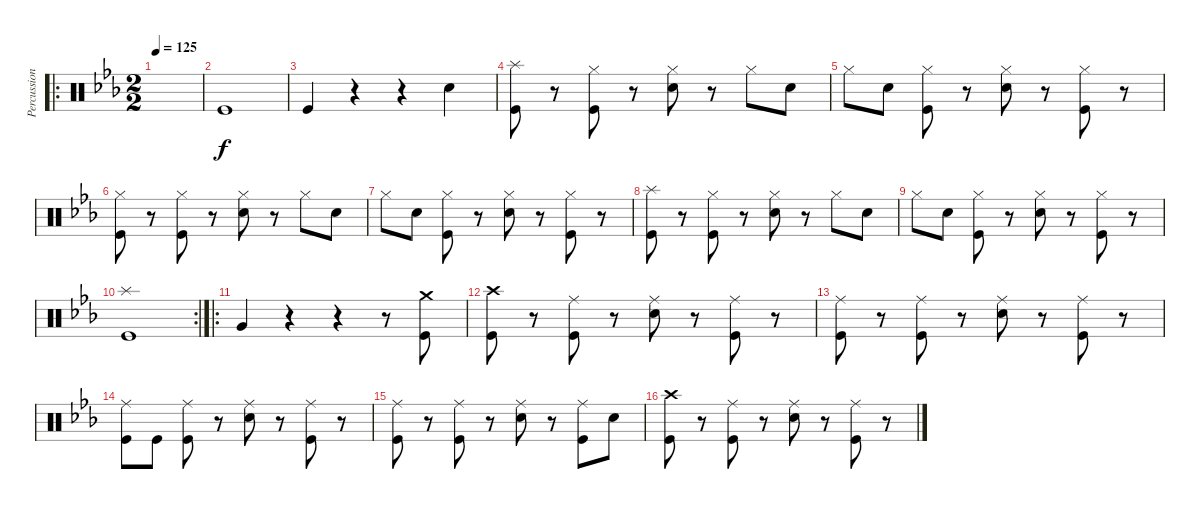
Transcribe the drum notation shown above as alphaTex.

\track ("Percussion" "Percussion") {instrument percussion}
\staff {score}
\articulation defaults
\ro
\ts (2 2)
\tempo 125
\clef neutral
\ks cminor
|
"Kick (hit)".1 |
"Kick (hit)".4 r.4 r.4 "Snare (hit) 2".4 |
("Splash (hit)" "Kick (hit)").8 r.8 ("Hi-Hat (closed)" "Kick (hit)").8 r.8 ("Hi-Hat (closed)" "Snare (hit) 2").8 r.8 "Hi-Hat (closed)".8 "Snare (hit) 2".8 |
"Hi-Hat (closed)".8 "Snare (hit) 2".8 ("Hi-Hat (closed)" "Kick (hit)").8 r.8 ("Hi-Hat (closed)" "Snare (hit) 2").8 r.8 ("Hi-Hat (closed)" "Kick (hit)").8 r.8 |
("Hi-Hat (closed)" "Kick (hit)").8 r.8 ("Hi-Hat (closed)" "Kick (hit)").8 r.8 ("Hi-Hat (closed)" "Snare (hit) 2").8 r.8 "Hi-Hat (closed)".8 "Snare (hit) 2".8 |
"Hi-Hat (closed)".8 "Snare (hit) 2".8 ("Hi-Hat (closed)" "Kick (hit)").8 r.8 ("Hi-Hat (closed)" "Snare (hit) 2").8 r.8 ("Hi-Hat (closed)" "Kick (hit)").8 r.8 |
("Splash (hit)" "Kick (hit)").8 r.8 ("Hi-Hat (closed)" "Kick (hit)").8 r.8 ("Hi-Hat (closed)" "Snare (hit) 2").8 r.8 "Hi-Hat (closed)".8 "Snare (hit) 2".8 |
"Hi-Hat (closed)".8 "Snare (hit) 2".8 ("Hi-Hat (closed)" "Kick (hit)").8 r.8 ("Hi-Hat (closed)" "Snare (hit) 2").8 r.8 ("Hi-Hat (closed)" "Kick (hit)").8 r.8 |
\rc 2
("Splash (hit)" "Kick (hit)").1 |
\ro "Very Low Tom (hit)".4
r.4 r.4 r.8 ("Crash medium (hit)" "Kick (hit)").8 |
("Crash high (hit)" "Kick (hit)").8 r.8 ("Ride (middle)" "Kick (hit)").8 r.8 ("Ride (middle)" "Snare (hit) 2").8 r.8 ("Ride (middle)" "Kick (hit)").8 r.8 |
("Ride (middle)" "Kick (hit)").8 r.8 ("Ride (middle)" "Kick (hit)").8 r.8 ("Ride (middle)" "Snare (hit) 2").8 r.8 ("Ride (middle)" "Kick (hit)").8 r.8 |
("Ride (middle)" "Kick (hit)").8 "Kick (hit)".8 ("Ride (middle)" "Kick (hit)").8 r.8 ("Ride (middle)" "Snare (hit) 2").8 r.8 ("Ride (middle)" "Kick (hit)").8 r.8 |
("Ride (middle)" "Kick (hit)").8 r.8 ("Ride (middle)" "Kick (hit)").8 r.8 ("Ride (middle)" "Snare (hit) 2").8 r.8 ("Ride (middle)" "Kick (hit)").8 "Snare (hit) 2".8 |
("Crash high (hit)" "Kick (hit)").8 r.8 ("Ride (middle)" "Kick (hit)").8 r.8 ("Ride (middle)" "Snare (hit) 2").8 r.8 ("Ride (middle)" "Kick (hit)").8 r.8
